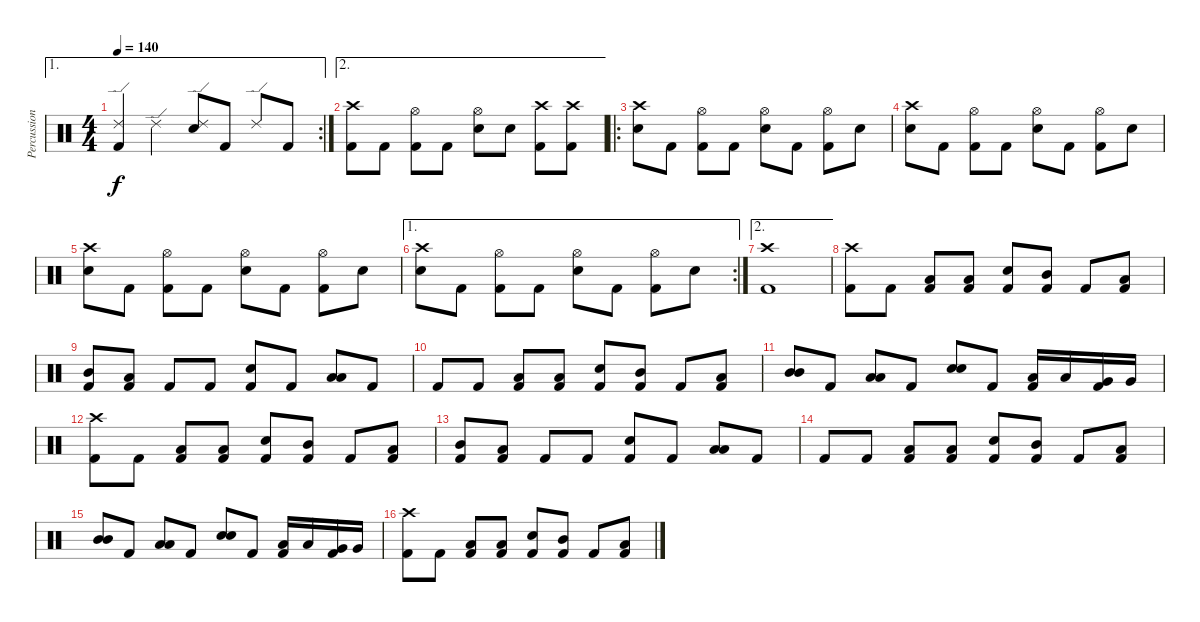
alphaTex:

\track ("Percussions" "Percussion") {instrument percussion}
\staff {score}
\articulation defaults
\ae 1
\rc 2
\ts (4 4)
\tempo 140
\clef neutral
\ks c
("Ride (edge) 2" "Kick (hit) 2").4{dy f} "Ride (edge) 2".4 ("Ride (edge) 2" "Snare (hit) 2").8 "Kick (hit) 2".8 "Ride (edge) 2".8 "Kick (hit) 2".8 |
\ae 2
("Crash high (hit)" "Kick (hit) 2").8 "Kick (hit) 2".8 ("Hi-Hat (open)" "Kick (hit) 2").8 "Kick (hit) 2".8 ("Hi-Hat (open)" "Snare (hit) 2").8 "Snare (hit) 2".8 ("Crash high (hit)" "Kick (hit) 2").8 ("Crash high (hit)" "Kick (hit) 2").8 |
\ro
("Crash high (hit)" "Snare (hit) 2").8 "Kick (hit) 2".8 ("Hi-Hat (open)" "Kick (hit) 2").8 "Kick (hit) 2".8 ("Hi-Hat (open)" "Snare (hit) 2").8 "Kick (hit) 2".8 ("Hi-Hat (open)" "Kick (hit) 2").8 "Snare (hit) 2".8 |
("Crash high (hit)" "Snare (hit) 2").8 "Kick (hit) 2".8 ("Hi-Hat (open)" "Kick (hit) 2").8 "Kick (hit) 2".8 ("Hi-Hat (open)" "Snare (hit) 2").8 "Kick (hit) 2".8 ("Hi-Hat (open)" "Kick (hit) 2").8 "Snare (hit) 2".8 |
("Crash high (hit)" "Snare (hit) 2").8 "Kick (hit) 2".8 ("Hi-Hat (open)" "Kick (hit) 2").8 "Kick (hit) 2".8 ("Hi-Hat (open)" "Snare (hit) 2").8 "Kick (hit) 2".8 ("Hi-Hat (open)" "Kick (hit) 2").8 "Snare (hit) 2".8 |
\ae 1
\rc 2
("Crash high (hit)" "Snare (hit) 2").8 "Kick (hit) 2".8 ("Hi-Hat (open)" "Kick (hit) 2").8 "Kick (hit) 2".8 ("Hi-Hat (open)" "Snare (hit) 2").8 "Kick (hit) 2".8 ("Hi-Hat (open)" "Kick (hit) 2").8 "Snare (hit) 2".8 |
\ae 2
("Crash high (hit)" "Kick (hit) 2").1 |
("Crash high (hit)" "Kick (hit) 2").8 "Kick (hit) 2".8 ("Low Floor Tom (hit)" "Kick (hit) 2").8 ("Low Floor Tom (hit)" "Kick (hit) 2").8 ("Snare (hit) 2" "Kick (hit) 2").8 ("Mid Tom (hit)" "Kick (hit) 2").8 "Kick (hit) 2".8 ("Low Tom (hit)" "Kick (hit) 2").8 |
("Mid Tom (hit)" "Kick (hit) 2").8 ("Low Tom (hit)" "Kick (hit) 2").8 "Kick (hit) 2".8 "Kick (hit) 2".8 ("Snare (hit) 2" "Kick (hit) 2").8 "Kick (hit) 2".8 ("Low Tom (hit)" "Low Tom (hit)").8{bd 120} "Kick (hit) 2".8 |
"Kick (hit) 2".8 "Kick (hit) 2".8 ("Low Floor Tom (hit)" "Kick (hit) 2").8 ("Low Floor Tom (hit)" "Kick (hit) 2").8 ("Snare (hit) 2" "Kick (hit) 2").8 ("Mid Tom (hit)" "Kick (hit) 2").8 "Kick (hit) 2".8 ("Low Tom (hit)" "Kick (hit) 2").8 |
("Mid Tom (hit)" "Mid Tom (hit)").8{bd 120} "Kick (hit) 2".8 ("Low Tom (hit)" "Low Tom (hit)").8{bd 120} "Kick (hit) 2".8 ("Snare (hit) 2" "Snare (hit) 2").8{bd 120} "Kick (hit) 2".8 ("Low Tom (hit)" "Kick (hit) 2").16 "Low Tom (hit)".16 ("Very Low Tom (hit)" "Kick (hit) 2").16 "Very Low Tom (hit)".16 |
("Crash high (hit)" "Kick (hit) 2").8 "Kick (hit) 2".8 ("Low Floor Tom (hit)" "Kick (hit) 2").8 ("Low Floor Tom (hit)" "Kick (hit) 2").8 ("Snare (hit) 2" "Kick (hit) 2").8 ("Mid Tom (hit)" "Kick (hit) 2").8 "Kick (hit) 2".8 ("Low Tom (hit)" "Kick (hit) 2").8 |
("Mid Tom (hit)" "Kick (hit) 2").8 ("Low Tom (hit)" "Kick (hit) 2").8 "Kick (hit) 2".8 "Kick (hit) 2".8 ("Snare (hit) 2" "Kick (hit) 2").8 "Kick (hit) 2".8 ("Low Tom (hit)" "Low Tom (hit)").8{bd 120} "Kick (hit) 2".8 |
"Kick (hit) 2".8 "Kick (hit) 2".8 ("Low Floor Tom (hit)" "Kick (hit) 2").8 ("Low Floor Tom (hit)" "Kick (hit) 2").8 ("Snare (hit) 2" "Kick (hit) 2").8 ("Mid Tom (hit)" "Kick (hit) 2").8 "Kick (hit) 2".8 ("Low Tom (hit)" "Kick (hit) 2").8 |
("Mid Tom (hit)" "Mid Tom (hit)").8{bd 120} "Kick (hit) 2".8 ("Low Tom (hit)" "Low Tom (hit)").8{bd 120} "Kick (hit) 2".8 ("Snare (hit) 2" "Snare (hit) 2").8{bd 120} "Kick (hit) 2".8 ("Low Tom (hit)" "Kick (hit) 2").16 "Low Tom (hit)".16 ("Very Low Tom (hit)" "Kick (hit) 2").16 "Very Low Tom (hit)".16 |
("Crash high (hit)" "Kick (hit) 2").8 "Kick (hit) 2".8 ("Low Floor Tom (hit)" "Kick (hit) 2").8 ("Low Floor Tom (hit)" "Kick (hit) 2").8 ("Snare (hit) 2" "Kick (hit) 2").8 ("Mid Tom (hit)" "Kick (hit) 2").8 "Kick (hit) 2".8 ("Low Tom (hit)" "Kick (hit) 2").8
